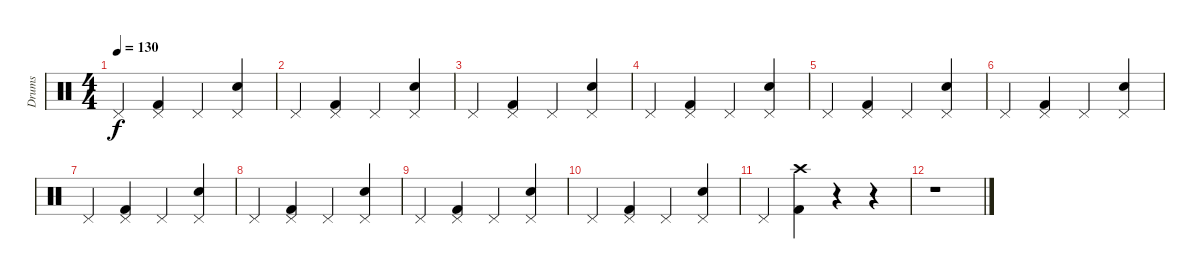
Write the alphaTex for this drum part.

\track ("Drums" "Drums") {instrument percussion}
\staff {score}
\articulation defaults
\ts (4 4)
\tempo 130
\clef neutral
\ks c "Pedal Hi-Hat (hit)".4{dy f}
("Kick (hit) 2" "Pedal Hi-Hat (hit)").4 "Pedal Hi-Hat (hit)".4 ("Snare (hit) 2" "Pedal Hi-Hat (hit)").4 |
"Pedal Hi-Hat (hit)".4 ("Kick (hit) 2" "Pedal Hi-Hat (hit)").4 "Pedal Hi-Hat (hit)".4 ("Snare (hit) 2" "Pedal Hi-Hat (hit)").4 |
"Pedal Hi-Hat (hit)".4 ("Kick (hit) 2" "Pedal Hi-Hat (hit)").4 "Pedal Hi-Hat (hit)".4 ("Snare (hit) 2" "Pedal Hi-Hat (hit)").4 |
"Pedal Hi-Hat (hit)".4 ("Kick (hit) 2" "Pedal Hi-Hat (hit)").4 "Pedal Hi-Hat (hit)".4 ("Snare (hit) 2" "Pedal Hi-Hat (hit)").4 |
"Pedal Hi-Hat (hit)".4 ("Kick (hit) 2" "Pedal Hi-Hat (hit)").4 "Pedal Hi-Hat (hit)".4 ("Snare (hit) 2" "Pedal Hi-Hat (hit)").4 |
"Pedal Hi-Hat (hit)".4 ("Kick (hit) 2" "Pedal Hi-Hat (hit)").4 "Pedal Hi-Hat (hit)".4 ("Snare (hit) 2" "Pedal Hi-Hat (hit)").4 |
"Pedal Hi-Hat (hit)".4 ("Kick (hit) 2" "Pedal Hi-Hat (hit)").4 "Pedal Hi-Hat (hit)".4 ("Snare (hit) 2" "Pedal Hi-Hat (hit)").4 |
"Pedal Hi-Hat (hit)".4 ("Kick (hit) 2" "Pedal Hi-Hat (hit)").4 "Pedal Hi-Hat (hit)".4 ("Snare (hit) 2" "Pedal Hi-Hat (hit)").4 |
"Pedal Hi-Hat (hit)".4 ("Kick (hit) 2" "Pedal Hi-Hat (hit)").4 "Pedal Hi-Hat (hit)".4 ("Snare (hit) 2" "Pedal Hi-Hat (hit)").4 |
"Pedal Hi-Hat (hit)".4 ("Kick (hit) 2" "Pedal Hi-Hat (hit)").4 "Pedal Hi-Hat (hit)".4 ("Snare (hit) 2" "Pedal Hi-Hat (hit)").4 |
"Pedal Hi-Hat (hit)".4 ("Kick (hit) 2" "Crash high (hit)").4 r.4 r.4 |
r.1
